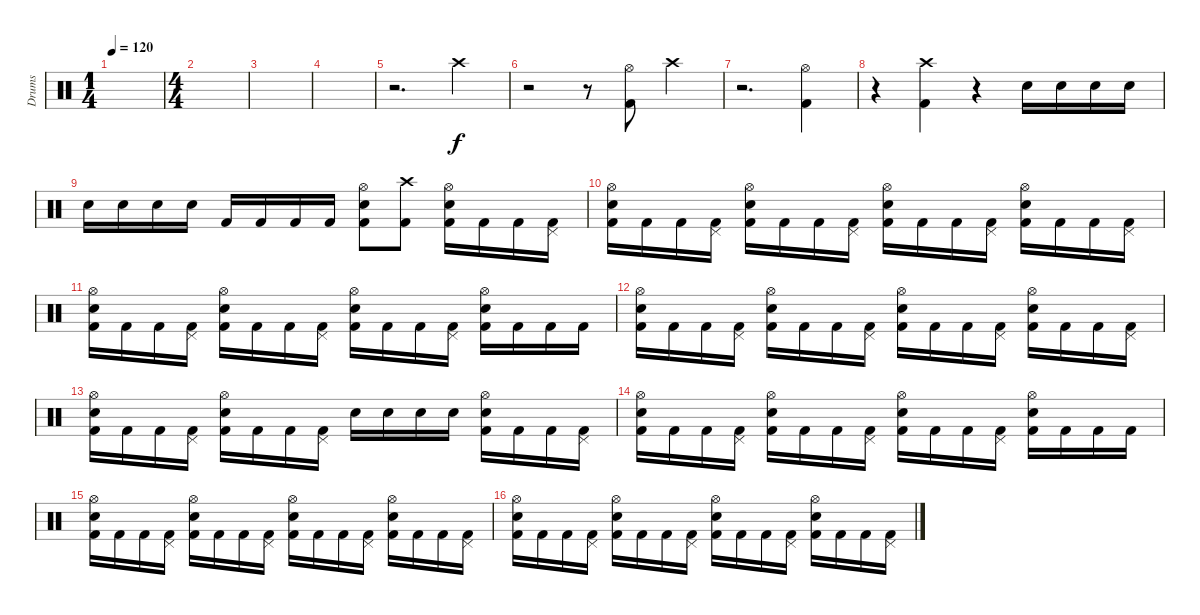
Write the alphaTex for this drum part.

\track ("Drums" "Drums") {instrument percussion}
\staff {score}
\articulation defaults
\ts (1 4)
\tempo 120
\clef neutral
\ks c
|
\ts (4 4)
|
|
|
r.2{d} "Crash high (hit)".4 |
r.2 r.8 ("Hi-Hat (open)" "Kick (hit) 2").8 "Crash high (hit)".4 |
r.2{d} ("Hi-Hat (open)" "Kick (hit) 2").4 |
r.4 ("Crash high (hit)" "Kick (hit) 2").4 r.4 "Electric Snare (hit)".16 "Electric Snare (hit)".16 "Electric Snare (hit)".16 "Electric Snare (hit)".16 |
"Snare (hit) 2".16 "Snare (hit) 2".16 "Snare (hit) 2".16 "Snare (hit) 2".16 "Kick (hit) 2".16 "Kick (hit) 2".16 "Kick (hit) 2".16 "Kick (hit) 2".16 ("Hi-Hat (open)" "Snare (hit) 2" "Kick (hit) 2").8 ("Crash high (hit)" "Kick (hit) 2").8 ("Hi-Hat (open)" "Snare (hit) 2" "Kick (hit) 2").16 "Kick (hit) 2".16 "Kick (hit) 2".16 ("Pedal Hi-Hat (hit)" "Kick (hit) 2").16 |
("Hi-Hat (open)" "Snare (hit) 2" "Kick (hit) 2").16 "Kick (hit) 2".16 "Kick (hit) 2".16 ("Pedal Hi-Hat (hit)" "Kick (hit) 2").16 ("Hi-Hat (open)" "Snare (hit) 2" "Kick (hit) 2").16 "Kick (hit) 2".16 "Kick (hit) 2".16 ("Pedal Hi-Hat (hit)" "Kick (hit) 2").16 ("Hi-Hat (open)" "Snare (hit) 2" "Kick (hit) 2").16 "Kick (hit) 2".16 "Kick (hit) 2".16 ("Pedal Hi-Hat (hit)" "Kick (hit) 2").16 ("Hi-Hat (open)" "Snare (hit) 2" "Kick (hit) 2").16 "Kick (hit) 2".16 "Kick (hit) 2".16 ("Pedal Hi-Hat (hit)" "Kick (hit) 2").16 |
("Hi-Hat (open)" "Snare (hit) 2" "Kick (hit) 2").16 "Kick (hit) 2".16 "Kick (hit) 2".16 ("Pedal Hi-Hat (hit)" "Kick (hit) 2").16 ("Hi-Hat (open)" "Snare (hit) 2" "Kick (hit) 2").16 "Kick (hit) 2".16 "Kick (hit) 2".16 ("Pedal Hi-Hat (hit)" "Kick (hit) 2").16 ("Hi-Hat (open)" "Snare (hit) 2" "Kick (hit) 2").16 "Kick (hit) 2".16 "Kick (hit) 2".16 ("Pedal Hi-Hat (hit)" "Kick (hit) 2").16 ("Hi-Hat (open)" "Snare (hit) 2" "Kick (hit) 2").16 "Kick (hit) 2".16 "Kick (hit) 2".16 "Kick (hit) 2".16 |
("Hi-Hat (open)" "Snare (hit) 2" "Kick (hit) 2").16 "Kick (hit) 2".16 "Kick (hit) 2".16 ("Pedal Hi-Hat (hit)" "Kick (hit) 2").16 ("Hi-Hat (open)" "Snare (hit) 2" "Kick (hit) 2").16 "Kick (hit) 2".16 "Kick (hit) 2".16 ("Pedal Hi-Hat (hit)" "Kick (hit) 2").16 ("Hi-Hat (open)" "Snare (hit) 2" "Kick (hit) 2").16 "Kick (hit) 2".16 "Kick (hit) 2".16 ("Pedal Hi-Hat (hit)" "Kick (hit) 2").16 ("Hi-Hat (open)" "Snare (hit) 2" "Kick (hit) 2").16 "Kick (hit) 2".16 "Kick (hit) 2".16 ("Pedal Hi-Hat (hit)" "Kick (hit) 2").16 |
("Hi-Hat (open)" "Snare (hit) 2" "Kick (hit) 2").16 "Kick (hit) 2".16 "Kick (hit) 2".16 ("Pedal Hi-Hat (hit)" "Kick (hit) 2").16 ("Hi-Hat (open)" "Snare (hit) 2" "Kick (hit) 2").16 "Kick (hit) 2".16 "Kick (hit) 2".16 ("Pedal Hi-Hat (hit)" "Kick (hit) 2").16 "Electric Snare (hit)".16 "Electric Snare (hit)".16 "Electric Snare (hit)".16 "Electric Snare (hit)".16 ("Hi-Hat (open)" "Snare (hit) 2" "Kick (hit) 2").16 "Kick (hit) 2".16 "Kick (hit) 2".16 ("Pedal Hi-Hat (hit)" "Kick (hit) 2").16 |
("Hi-Hat (open)" "Snare (hit) 2" "Kick (hit) 2").16 "Kick (hit) 2".16 "Kick (hit) 2".16 ("Pedal Hi-Hat (hit)" "Kick (hit) 2").16 ("Hi-Hat (open)" "Snare (hit) 2" "Kick (hit) 2").16 "Kick (hit) 2".16 "Kick (hit) 2".16 ("Pedal Hi-Hat (hit)" "Kick (hit) 2").16 ("Hi-Hat (open)" "Snare (hit) 2" "Kick (hit) 2").16 "Kick (hit) 2".16 "Kick (hit) 2".16 ("Pedal Hi-Hat (hit)" "Kick (hit) 2").16 ("Hi-Hat (open)" "Snare (hit) 2" "Kick (hit) 2").16 "Kick (hit) 2".16 "Kick (hit) 2".16 "Kick (hit) 2".16 |
("Hi-Hat (open)" "Snare (hit) 2" "Kick (hit) 2").16 "Kick (hit) 2".16 "Kick (hit) 2".16 ("Pedal Hi-Hat (hit)" "Kick (hit) 2").16 ("Hi-Hat (open)" "Snare (hit) 2" "Kick (hit) 2").16 "Kick (hit) 2".16 "Kick (hit) 2".16 ("Pedal Hi-Hat (hit)" "Kick (hit) 2").16 ("Hi-Hat (open)" "Snare (hit) 2" "Kick (hit) 2").16 "Kick (hit) 2".16 "Kick (hit) 2".16 ("Pedal Hi-Hat (hit)" "Kick (hit) 2").16 ("Hi-Hat (open)" "Snare (hit) 2" "Kick (hit) 2").16 "Kick (hit) 2".16 "Kick (hit) 2".16 ("Pedal Hi-Hat (hit)" "Kick (hit) 2").16 |
("Hi-Hat (open)" "Snare (hit) 2" "Kick (hit) 2").16 "Kick (hit) 2".16 "Kick (hit) 2".16 ("Pedal Hi-Hat (hit)" "Kick (hit) 2").16 ("Hi-Hat (open)" "Snare (hit) 2" "Kick (hit) 2").16 "Kick (hit) 2".16 "Kick (hit) 2".16 ("Pedal Hi-Hat (hit)" "Kick (hit) 2").16 ("Hi-Hat (open)" "Snare (hit) 2" "Kick (hit) 2").16 "Kick (hit) 2".16 "Kick (hit) 2".16 ("Pedal Hi-Hat (hit)" "Kick (hit) 2").16 ("Hi-Hat (open)" "Snare (hit) 2" "Kick (hit) 2").16 "Kick (hit) 2".16 "Kick (hit) 2".16 ("Pedal Hi-Hat (hit)" "Kick (hit) 2").16
